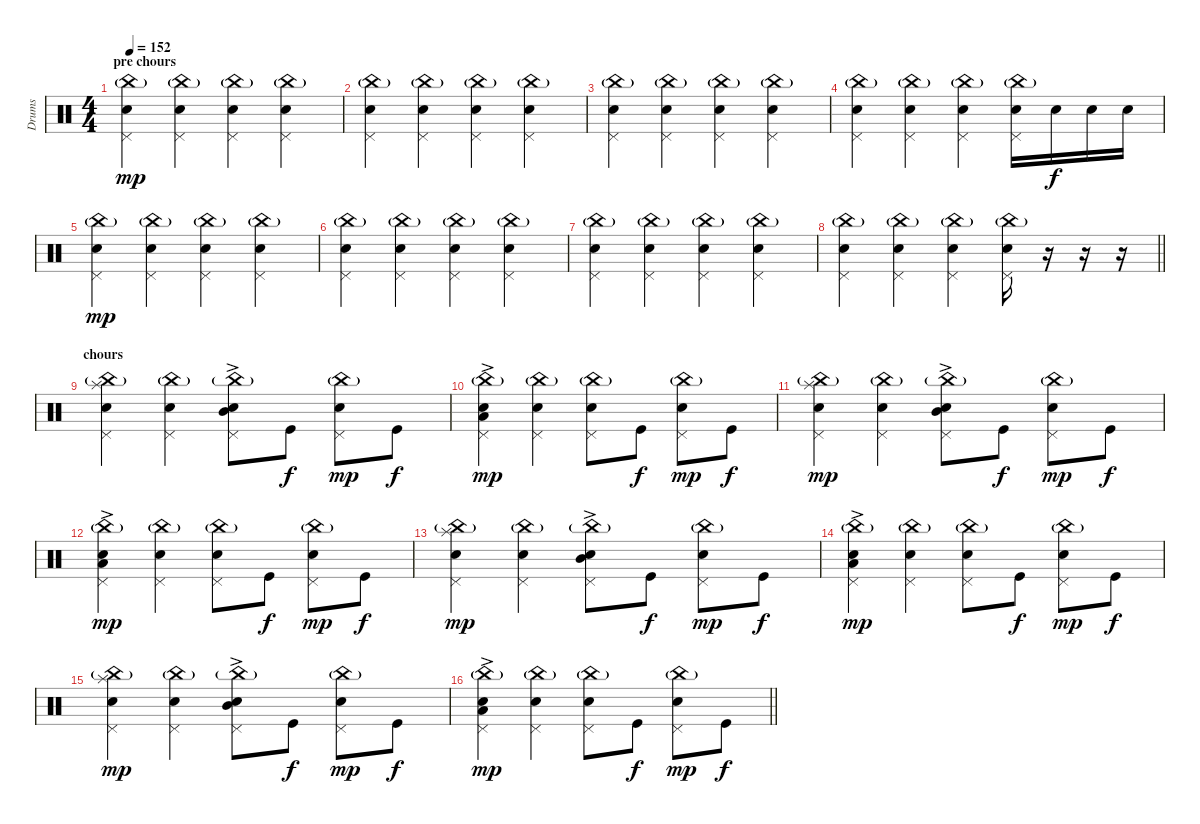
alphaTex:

\track ("Drums" "Drums") {instrument percussion}
\staff {score}
\articulation defaults
\ts (4 4)
\section ("" "pre chours")
\tempo 152
\clef neutral
\ks c
("China (hit)"{g} "Electric Snare (hit)" "Pedal Hi-Hat (hit)").4{dy mp} ("China (hit)"{g} "Electric Snare (hit)" "Pedal Hi-Hat (hit)").4 ("China (hit)"{g} "Electric Snare (hit)" "Pedal Hi-Hat (hit)").4 ("China (hit)"{g} "Electric Snare (hit)" "Pedal Hi-Hat (hit)").4 |
("China (hit)"{g} "Electric Snare (hit)" "Pedal Hi-Hat (hit)").4 ("China (hit)"{g} "Electric Snare (hit)" "Pedal Hi-Hat (hit)").4 ("China (hit)"{g} "Electric Snare (hit)" "Pedal Hi-Hat (hit)").4 ("China (hit)"{g} "Electric Snare (hit)" "Pedal Hi-Hat (hit)").4 |
("China (hit)"{g} "Electric Snare (hit)" "Pedal Hi-Hat (hit)").4 ("China (hit)"{g} "Electric Snare (hit)" "Pedal Hi-Hat (hit)").4 ("China (hit)"{g} "Electric Snare (hit)" "Pedal Hi-Hat (hit)").4 ("China (hit)"{g} "Electric Snare (hit)" "Pedal Hi-Hat (hit)").4 |
("China (hit)"{g} "Electric Snare (hit)" "Pedal Hi-Hat (hit)").4 ("China (hit)"{g} "Electric Snare (hit)" "Pedal Hi-Hat (hit)").4 ("China (hit)"{g} "Electric Snare (hit)" "Pedal Hi-Hat (hit)").4 ("China (hit)"{g} "Electric Snare (hit)" "Pedal Hi-Hat (hit)").16 "Electric Snare (hit)".16{dy f} "Electric Snare (hit)".16 "Electric Snare (hit)".16 |
("China (hit)"{g} "Electric Snare (hit)" "Pedal Hi-Hat (hit)").4{dy mp} ("China (hit)"{g} "Electric Snare (hit)" "Pedal Hi-Hat (hit)").4 ("China (hit)"{g} "Electric Snare (hit)" "Pedal Hi-Hat (hit)").4 ("China (hit)"{g} "Electric Snare (hit)" "Pedal Hi-Hat (hit)").4 |
("China (hit)"{g} "Electric Snare (hit)" "Pedal Hi-Hat (hit)").4 ("China (hit)"{g} "Electric Snare (hit)" "Pedal Hi-Hat (hit)").4 ("China (hit)"{g} "Electric Snare (hit)" "Pedal Hi-Hat (hit)").4 ("China (hit)"{g} "Electric Snare (hit)" "Pedal Hi-Hat (hit)").4 |
("China (hit)"{g} "Electric Snare (hit)" "Pedal Hi-Hat (hit)").4 ("China (hit)"{g} "Electric Snare (hit)" "Pedal Hi-Hat (hit)").4 ("China (hit)"{g} "Electric Snare (hit)" "Pedal Hi-Hat (hit)").4 ("China (hit)"{g} "Electric Snare (hit)" "Pedal Hi-Hat (hit)").4 |
\barLineRight lightlight
("China (hit)"{g} "Electric Snare (hit)" "Pedal Hi-Hat (hit)").4 ("China (hit)"{g} "Electric Snare (hit)" "Pedal Hi-Hat (hit)").4 ("China (hit)"{g} "Electric Snare (hit)" "Pedal Hi-Hat (hit)").4 ("China (hit)"{g} "Electric Snare (hit)" "Pedal Hi-Hat (hit)").16 r.16 r.16 r.16 |
\section ("" "chours")
("Splash (hit)" "China (hit)"{g} "Electric Snare (hit)" "Pedal Hi-Hat (hit)").4 ("China (hit)"{g} "Electric Snare (hit)" "Pedal Hi-Hat (hit)").4 ("Mid Tom (hit)"{ac} "China (hit)"{g} "Electric Snare (hit)" "Pedal Hi-Hat (hit)").8 "Kick (hit)".8{dy f} ("China (hit)"{g} "Electric Snare (hit)" "Pedal Hi-Hat (hit)").8{dy mp} "Kick (hit)".8{dy f} |
("Low Tom (hit)"{ac} "China (hit)"{g} "Electric Snare (hit)" "Pedal Hi-Hat (hit)").4{dy mp} ("China (hit)"{g} "Electric Snare (hit)" "Pedal Hi-Hat (hit)").4 ("China (hit)"{g} "Electric Snare (hit)" "Pedal Hi-Hat (hit)").8 "Kick (hit)".8{dy f} ("China (hit)"{g} "Electric Snare (hit)" "Pedal Hi-Hat (hit)").8{dy mp} "Kick (hit)".8{dy f} |
("Splash (hit)" "China (hit)"{g} "Electric Snare (hit)" "Pedal Hi-Hat (hit)").4{dy mp} ("China (hit)"{g} "Electric Snare (hit)" "Pedal Hi-Hat (hit)").4 ("Mid Tom (hit)"{ac} "China (hit)"{g} "Electric Snare (hit)" "Pedal Hi-Hat (hit)").8 "Kick (hit)".8{dy f} ("China (hit)"{g} "Electric Snare (hit)" "Pedal Hi-Hat (hit)").8{dy mp} "Kick (hit)".8{dy f} |
("Low Tom (hit)"{ac} "China (hit)"{g} "Electric Snare (hit)" "Pedal Hi-Hat (hit)").4{dy mp} ("China (hit)"{g} "Electric Snare (hit)" "Pedal Hi-Hat (hit)").4 ("China (hit)"{g} "Electric Snare (hit)" "Pedal Hi-Hat (hit)").8 "Kick (hit)".8{dy f} ("China (hit)"{g} "Electric Snare (hit)" "Pedal Hi-Hat (hit)").8{dy mp} "Kick (hit)".8{dy f} |
("Splash (hit)" "China (hit)"{g} "Electric Snare (hit)" "Pedal Hi-Hat (hit)").4{dy mp} ("China (hit)"{g} "Electric Snare (hit)" "Pedal Hi-Hat (hit)").4 ("Mid Tom (hit)"{ac} "China (hit)"{g} "Electric Snare (hit)" "Pedal Hi-Hat (hit)").8 "Kick (hit)".8{dy f} ("China (hit)"{g} "Electric Snare (hit)" "Pedal Hi-Hat (hit)").8{dy mp} "Kick (hit)".8{dy f} |
("Low Tom (hit)"{ac} "China (hit)"{g} "Electric Snare (hit)" "Pedal Hi-Hat (hit)").4{dy mp} ("China (hit)"{g} "Electric Snare (hit)" "Pedal Hi-Hat (hit)").4 ("China (hit)"{g} "Electric Snare (hit)" "Pedal Hi-Hat (hit)").8 "Kick (hit)".8{dy f} ("China (hit)"{g} "Electric Snare (hit)" "Pedal Hi-Hat (hit)").8{dy mp} "Kick (hit)".8{dy f} |
("Splash (hit)" "China (hit)"{g} "Electric Snare (hit)" "Pedal Hi-Hat (hit)").4{dy mp} ("China (hit)"{g} "Electric Snare (hit)" "Pedal Hi-Hat (hit)").4 ("Mid Tom (hit)"{ac} "China (hit)"{g} "Electric Snare (hit)" "Pedal Hi-Hat (hit)").8 "Kick (hit)".8{dy f} ("China (hit)"{g} "Electric Snare (hit)" "Pedal Hi-Hat (hit)").8{dy mp} "Kick (hit)".8{dy f} |
\barLineRight lightlight
("Low Tom (hit)"{ac} "China (hit)"{g} "Electric Snare (hit)" "Pedal Hi-Hat (hit)").4{dy mp} ("China (hit)"{g} "Electric Snare (hit)" "Pedal Hi-Hat (hit)").4 ("China (hit)"{g} "Electric Snare (hit)" "Pedal Hi-Hat (hit)").8 "Kick (hit)".8{dy f} ("China (hit)"{g} "Electric Snare (hit)" "Pedal Hi-Hat (hit)").8{dy mp} "Kick (hit)".8{dy f}
